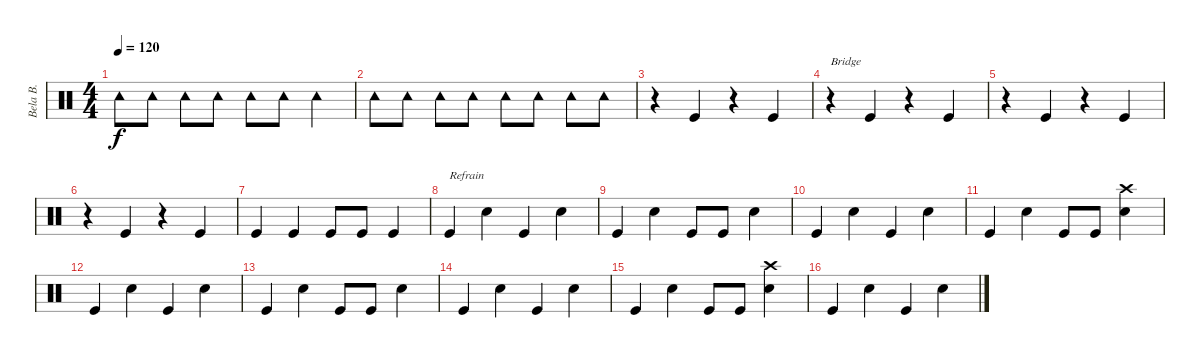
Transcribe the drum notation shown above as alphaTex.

\track ("Bela B." "Bela B.") {instrument percussion}
\staff {score}
\articulation defaults
\ts (4 4)
\tempo 120
\clef neutral
\ks c "Tambourine (hit)".8{dy f} "Tambourine (hit)".8 "Tambourine (hit)".8 "Tambourine (hit)".8 "Tambourine (hit)".8 "Tambourine (hit)".8 "Tambourine (hit)".4
|
"Tambourine (hit)".8 "Tambourine (hit)".8 "Tambourine (hit)".8 "Tambourine (hit)".8 "Tambourine (hit)".8 "Tambourine (hit)".8 "Tambourine (hit)".8 "Tambourine (hit)".8 |
r.4 "Kick (hit)".4 r.4 "Kick (hit)".4 |
r.4{txt "Bridge"} "Kick (hit)".4 r.4 "Kick (hit)".4 |
r.4 "Kick (hit)".4 r.4 "Kick (hit)".4 |
r.4 "Kick (hit)".4 r.4 "Kick (hit)".4 |
"Kick (hit)".4 "Kick (hit)".4 "Kick (hit)".8 "Kick (hit)".8 "Kick (hit)".4 |
"Kick (hit)".4{txt "Refrain"} "Electric Snare (hit)".4 "Kick (hit)".4 "Electric Snare (hit)".4 |
"Kick (hit)".4 "Electric Snare (hit)".4 "Kick (hit)".8 "Kick (hit)".8 "Electric Snare (hit)".4 |
"Kick (hit)".4 "Electric Snare (hit)".4 "Kick (hit)".4 "Electric Snare (hit)".4 |
"Kick (hit)".4 "Electric Snare (hit)".4 "Kick (hit)".8 "Kick (hit)".8 ("Electric Snare (hit)" "Crash high (hit)").4 |
"Kick (hit)".4 "Electric Snare (hit)".4 "Kick (hit)".4 "Electric Snare (hit)".4 |
"Kick (hit)".4 "Electric Snare (hit)".4 "Kick (hit)".8 "Kick (hit)".8 "Electric Snare (hit)".4 |
"Kick (hit)".4 "Electric Snare (hit)".4 "Kick (hit)".4 "Electric Snare (hit)".4 |
"Kick (hit)".4 "Electric Snare (hit)".4 "Kick (hit)".8 "Kick (hit)".8 ("Electric Snare (hit)" "Crash high (hit)").4 |
"Kick (hit)".4 "Electric Snare (hit)".4 "Kick (hit)".4 "Electric Snare (hit)".4
